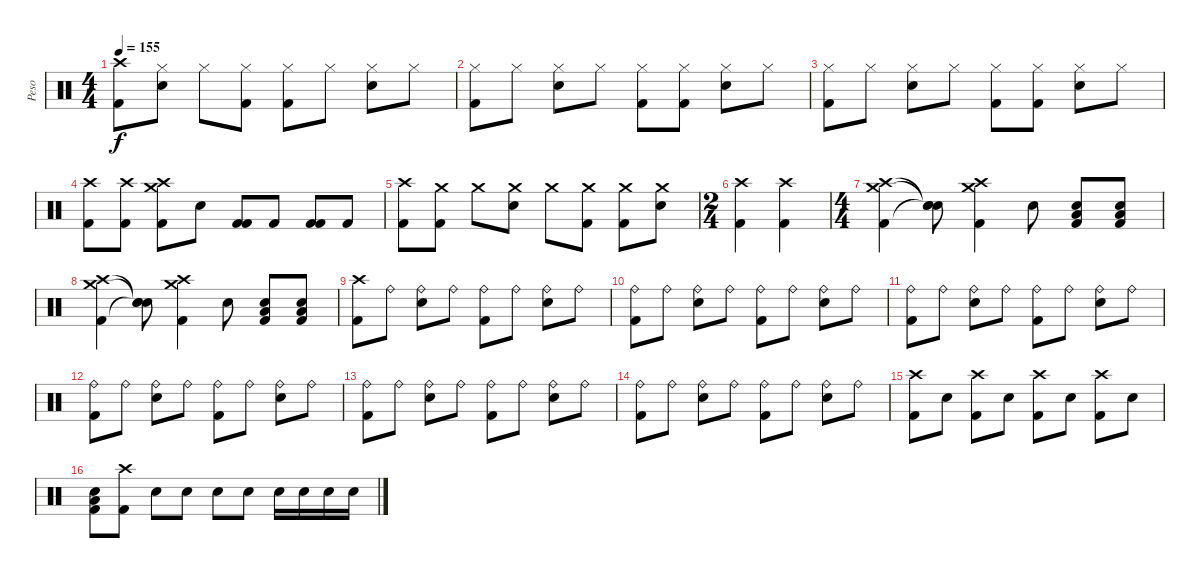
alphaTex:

\track ("Peso" "Peso") {instrument percussion}
\staff {score}
\articulation defaults
\ts (4 4)
\tempo 155
\clef neutral
\ks c
("Crash high (hit)" "Kick (hit) 2").8{dy f} ("Hi-Hat (closed)" "Snare (hit) 2").8 "Hi-Hat (closed)".8 ("Hi-Hat (closed)" "Kick (hit) 2").8 ("Hi-Hat (closed)" "Kick (hit) 2").8 "Hi-Hat (closed)".8 ("Hi-Hat (closed)" "Snare (hit) 2").8 "Hi-Hat (closed)".8 |
("Hi-Hat (closed)" "Kick (hit) 2").8 "Hi-Hat (closed)".8 ("Hi-Hat (closed)" "Snare (hit) 2").8 "Hi-Hat (closed)".8 ("Hi-Hat (closed)" "Kick (hit) 2").8 ("Hi-Hat (closed)" "Kick (hit) 2").8 ("Hi-Hat (closed)" "Snare (hit) 2").8 "Hi-Hat (closed)".8 |
("Hi-Hat (closed)" "Kick (hit) 2").8 "Hi-Hat (closed)".8 ("Hi-Hat (closed)" "Snare (hit) 2").8 "Hi-Hat (closed)".8 ("Hi-Hat (closed)" "Kick (hit) 2").8 ("Hi-Hat (closed)" "Kick (hit) 2").8 ("Hi-Hat (closed)" "Snare (hit) 2").8 "Hi-Hat (closed)".8 |
("Crash high (hit)" "Kick (hit) 2").8 ("Crash high (hit)" "Kick (hit) 2").8 ("Crash high (hit)" "Crash medium (hit)" "Kick (hit) 2").8 "Snare (hit)"{x}.8 ("Kick (hit) 2" "Kick (hit) 2").8 "Kick (hit) 2"{x}.8 ("Kick (hit) 2" "Kick (hit) 2").8 "Kick (hit) 2"{x}.8 |
("Crash high (hit)" "Kick (hit) 2").8 ("Crash medium (hit)" "Kick (hit) 2").8 "Crash medium (hit)".8 ("Crash medium (hit)" "Snare (hit) 2").8 "Crash medium (hit)".8 ("Crash medium (hit)" "Kick (hit) 2").8 ("Crash medium (hit)" "Kick (hit) 2").8 ("Crash medium (hit)" "Snare (hit) 2").8 |
\ts (2 4)
("Crash high (hit)" "Kick (hit) 2").4 ("Crash high (hit)" "Kick (hit) 2").4 |
\ts (4 4)
("Crash high (hit)" "Crash medium (hit)" "Kick (hit) 2").4 ("Snare (hit)"{t} "Snare (hit)"{t} "Snare (hit)"{t}).8 ("Crash high (hit)" "Crash medium (hit)" "Kick (hit) 2").4 "Snare (hit) 2"{x}.8 ("Low Floor Tom (hit)" "Snare (hit) 2" "Kick (hit) 2").8 ("Low Floor Tom (hit)" "Snare (hit) 2" "Kick (hit) 2").8 |
("Crash high (hit)" "Crash medium (hit)" "Kick (hit) 2").4 ("Snare (hit)"{t} "Snare (hit)"{t} "Snare (hit)"{t}).8 ("Crash high (hit)" "Crash medium (hit)" "Kick (hit) 2").4 "Snare (hit) 2"{x}.8 ("Low Floor Tom (hit)" "Snare (hit) 2" "Kick (hit) 2").8 ("Low Floor Tom (hit)" "Snare (hit) 2" "Kick (hit) 2").8 |
("Crash high (hit)" "Kick (hit) 2").8 "Ride (bell)".8 ("Ride (bell)" "Snare (hit) 2").8 "Ride (bell)".8 ("Ride (bell)" "Kick (hit) 2").8 "Ride (bell)".8 ("Ride (bell)" "Snare (hit) 2").8 "Ride (bell)".8 |
("Ride (bell)" "Kick (hit) 2").8 "Ride (bell)".8 ("Ride (bell)" "Snare (hit) 2").8 "Ride (bell)".8 ("Ride (bell)" "Kick (hit) 2").8 "Ride (bell)".8 ("Ride (bell)" "Snare (hit) 2").8 "Ride (bell)".8 |
("Ride (bell)" "Kick (hit) 2").8 "Ride (bell)".8 ("Ride (bell)" "Snare (hit) 2").8 "Ride (bell)".8 ("Ride (bell)" "Kick (hit) 2").8 "Ride (bell)".8 ("Ride (bell)" "Snare (hit) 2").8 "Ride (bell)".8 |
("Ride (bell)" "Kick (hit) 2").8 "Ride (bell)".8 ("Ride (bell)" "Snare (hit) 2").8 "Ride (bell)".8 ("Ride (bell)" "Kick (hit) 2").8 "Ride (bell)".8 ("Ride (bell)" "Snare (hit) 2").8 "Ride (bell)".8 |
("Ride (bell)" "Kick (hit) 2").8 "Ride (bell)".8 ("Ride (bell)" "Snare (hit) 2").8 "Ride (bell)".8 ("Ride (bell)" "Kick (hit) 2").8 "Ride (bell)".8 ("Ride (bell)" "Snare (hit) 2").8 "Ride (bell)".8 |
("Ride (bell)" "Kick (hit) 2").8 "Ride (bell)".8 ("Ride (bell)" "Snare (hit) 2").8 "Ride (bell)".8 ("Ride (bell)" "Kick (hit) 2").8 "Ride (bell)".8 ("Ride (bell)" "Snare (hit) 2").8 "Ride (bell)".8 |
("Crash high (hit)" "Kick (hit) 2").8 "Snare (hit)"{x}.8 ("Crash high (hit)" "Kick (hit) 2").8 "Snare (hit)"{x}.8 ("Crash high (hit)" "Kick (hit) 2").8 "Snare (hit)"{x}.8 ("Crash high (hit)" "Kick (hit) 2").8 "Snare (hit)"{x}.8 |
("Low Floor Tom (hit)" "Snare (hit) 2" "Kick (hit) 2").8 ("Crash high (hit)" "Kick (hit) 2").8 "Snare (hit) 2".8 "Snare (hit) 2".8 "Snare (hit) 2".8 "Snare (hit) 2".8 "Snare (hit) 2".16 "Snare (hit) 2".16 "Snare (hit) 2".16 "Snare (hit) 2".16
